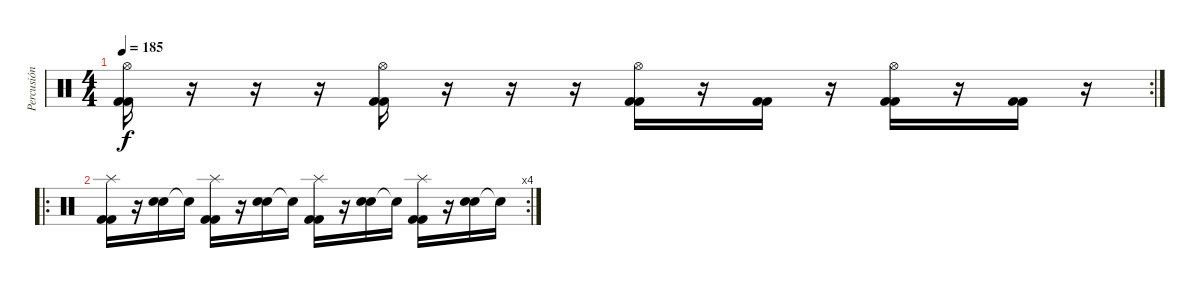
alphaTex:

\track ("Percusión" "Percusión") {instrument percussion}
\staff {score}
\articulation defaults
\rc 2
\ts (4 4)
\tempo 185
\clef neutral
\ks c
("Hi-Hat (open)" "Kick (hit) 2" "Kick (hit) 2").16{dy f} r.16 r.16 r.16 ("Hi-Hat (open)" "Kick (hit) 2" "Kick (hit) 2").16 r.16 r.16 r.16 ("Hi-Hat (open)" "Kick (hit) 2" "Kick (hit) 2").16 r.16 ("Kick (hit) 2" "Kick (hit) 2").16 r.16 ("Hi-Hat (open)" "Kick (hit) 2" "Kick (hit) 2").16 r.16 ("Kick (hit) 2" "Kick (hit) 2").16 r.16 |
\ro
\rc 4
("Splash (hit)" "Kick (hit) 2" "Kick (hit) 2").16 r.16 ("Electric Snare (hit)" "Electric Snare (hit)").16 "Snare (hit)"{t}.16 ("Splash (hit)" "Kick (hit) 2" "Kick (hit) 2").16 r.16 ("Electric Snare (hit)" "Electric Snare (hit)").16 "Snare (hit)"{t}.16 ("Splash (hit)" "Kick (hit) 2" "Kick (hit) 2").16 r.16 ("Electric Snare (hit)" "Electric Snare (hit)").16 "Snare (hit)"{t}.16 ("Splash (hit)" "Kick (hit) 2" "Kick (hit) 2").16 r.16 ("Electric Snare (hit)" "Electric Snare (hit)").16 "Snare (hit)"{t}.16
